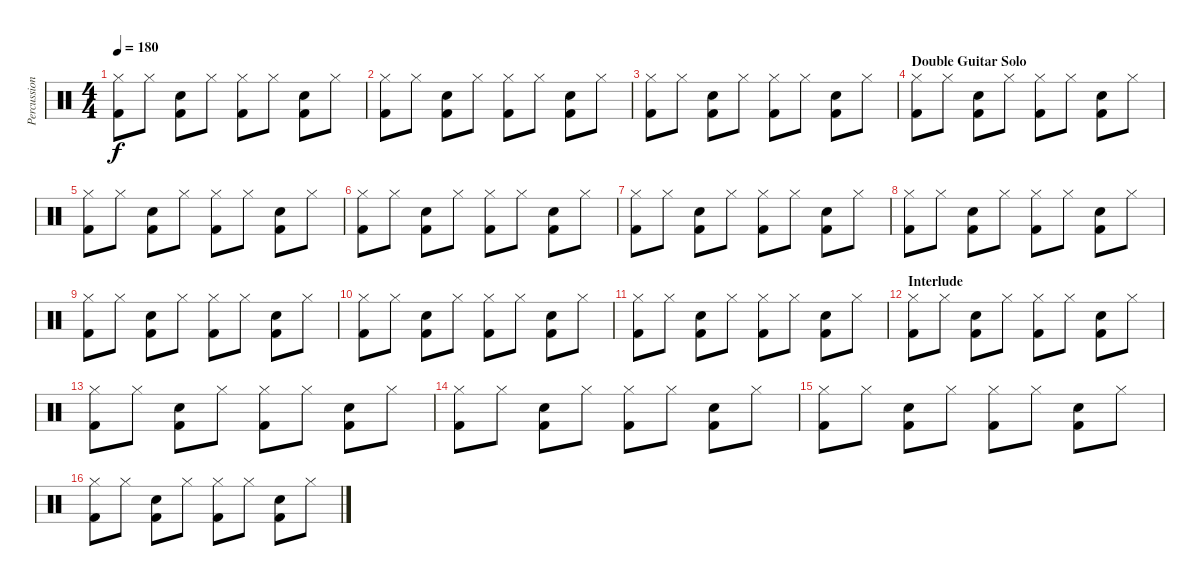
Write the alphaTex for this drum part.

\track ("Percussion" "Percussion") {instrument percussion}
\staff {score}
\articulation defaults
\ts (4 4)
\tempo 180
\clef neutral
\ks c
("Kick (hit) 2" "Hi-Hat (closed)").8{dy f} "Hi-Hat (closed)".8 ("Kick (hit) 2" "Snare (hit) 2").8 "Hi-Hat (closed)".8 ("Kick (hit) 2" "Hi-Hat (closed)").8 "Hi-Hat (closed)".8 ("Kick (hit) 2" "Electric Snare (hit)").8 "Hi-Hat (closed)".8 |
("Kick (hit) 2" "Hi-Hat (closed)").8 "Hi-Hat (closed)".8 ("Kick (hit) 2" "Snare (hit) 2").8 "Hi-Hat (closed)".8 ("Kick (hit) 2" "Hi-Hat (closed)").8 "Hi-Hat (closed)".8 ("Kick (hit) 2" "Electric Snare (hit)").8 "Hi-Hat (closed)".8 |
("Kick (hit) 2" "Hi-Hat (closed)").8 "Hi-Hat (closed)".8 ("Kick (hit) 2" "Snare (hit) 2").8 "Hi-Hat (closed)".8 ("Kick (hit) 2" "Hi-Hat (closed)").8 "Hi-Hat (closed)".8 ("Kick (hit) 2" "Electric Snare (hit)").8 "Hi-Hat (closed)".8 |
\section ("" "Double Guitar Solo")
("Kick (hit) 2" "Hi-Hat (closed)").8 "Hi-Hat (closed)".8 ("Kick (hit) 2" "Snare (hit) 2").8 "Hi-Hat (closed)".8 ("Kick (hit) 2" "Hi-Hat (closed)").8 "Hi-Hat (closed)".8 ("Kick (hit) 2" "Electric Snare (hit)").8 "Hi-Hat (closed)".8 |
("Kick (hit) 2" "Hi-Hat (closed)").8 "Hi-Hat (closed)".8 ("Kick (hit) 2" "Snare (hit) 2").8 "Hi-Hat (closed)".8 ("Kick (hit) 2" "Hi-Hat (closed)").8 "Hi-Hat (closed)".8 ("Kick (hit) 2" "Electric Snare (hit)").8 "Hi-Hat (closed)".8 |
("Kick (hit) 2" "Hi-Hat (closed)").8 "Hi-Hat (closed)".8 ("Kick (hit) 2" "Snare (hit) 2").8 "Hi-Hat (closed)".8 ("Kick (hit) 2" "Hi-Hat (closed)").8 "Hi-Hat (closed)".8 ("Kick (hit) 2" "Electric Snare (hit)").8 "Hi-Hat (closed)".8 |
("Kick (hit) 2" "Hi-Hat (closed)").8 "Hi-Hat (closed)".8 ("Kick (hit) 2" "Snare (hit) 2").8 "Hi-Hat (closed)".8 ("Kick (hit) 2" "Hi-Hat (closed)").8 "Hi-Hat (closed)".8 ("Kick (hit) 2" "Electric Snare (hit)").8 "Hi-Hat (closed)".8 |
("Kick (hit) 2" "Hi-Hat (closed)").8 "Hi-Hat (closed)".8 ("Kick (hit) 2" "Snare (hit) 2").8 "Hi-Hat (closed)".8 ("Kick (hit) 2" "Hi-Hat (closed)").8 "Hi-Hat (closed)".8 ("Kick (hit) 2" "Electric Snare (hit)").8 "Hi-Hat (closed)".8 |
("Kick (hit) 2" "Hi-Hat (closed)").8 "Hi-Hat (closed)".8 ("Kick (hit) 2" "Snare (hit) 2").8 "Hi-Hat (closed)".8 ("Kick (hit) 2" "Hi-Hat (closed)").8 "Hi-Hat (closed)".8 ("Kick (hit) 2" "Electric Snare (hit)").8 "Hi-Hat (closed)".8 |
("Kick (hit) 2" "Hi-Hat (closed)").8 "Hi-Hat (closed)".8 ("Kick (hit) 2" "Snare (hit) 2").8 "Hi-Hat (closed)".8 ("Kick (hit) 2" "Hi-Hat (closed)").8 "Hi-Hat (closed)".8 ("Kick (hit) 2" "Electric Snare (hit)").8 "Hi-Hat (closed)".8 |
("Kick (hit) 2" "Hi-Hat (closed)").8 "Hi-Hat (closed)".8 ("Kick (hit) 2" "Snare (hit) 2").8 "Hi-Hat (closed)".8 ("Kick (hit) 2" "Hi-Hat (closed)").8 "Hi-Hat (closed)".8 ("Kick (hit) 2" "Electric Snare (hit)").8 "Hi-Hat (closed)".8 |
\section ("" "Interlude")
("Kick (hit) 2" "Hi-Hat (closed)").8 "Hi-Hat (closed)".8 ("Kick (hit) 2" "Snare (hit) 2").8 "Hi-Hat (closed)".8 ("Kick (hit) 2" "Hi-Hat (closed)").8 "Hi-Hat (closed)".8 ("Kick (hit) 2" "Electric Snare (hit)").8 "Hi-Hat (closed)".8 |
("Kick (hit) 2" "Hi-Hat (closed)").8 "Hi-Hat (closed)".8 ("Kick (hit) 2" "Snare (hit) 2").8 "Hi-Hat (closed)".8 ("Kick (hit) 2" "Hi-Hat (closed)").8 "Hi-Hat (closed)".8 ("Kick (hit) 2" "Electric Snare (hit)").8 "Hi-Hat (closed)".8 |
("Kick (hit) 2" "Hi-Hat (closed)").8 "Hi-Hat (closed)".8 ("Kick (hit) 2" "Snare (hit) 2").8 "Hi-Hat (closed)".8 ("Kick (hit) 2" "Hi-Hat (closed)").8 "Hi-Hat (closed)".8 ("Kick (hit) 2" "Electric Snare (hit)").8 "Hi-Hat (closed)".8 |
("Kick (hit) 2" "Hi-Hat (closed)").8 "Hi-Hat (closed)".8 ("Kick (hit) 2" "Snare (hit) 2").8 "Hi-Hat (closed)".8 ("Kick (hit) 2" "Hi-Hat (closed)").8 "Hi-Hat (closed)".8 ("Kick (hit) 2" "Electric Snare (hit)").8 "Hi-Hat (closed)".8 |
("Kick (hit) 2" "Hi-Hat (closed)").8 "Hi-Hat (closed)".8 ("Kick (hit) 2" "Snare (hit) 2").8 "Hi-Hat (closed)".8 ("Kick (hit) 2" "Hi-Hat (closed)").8 "Hi-Hat (closed)".8 ("Kick (hit) 2" "Electric Snare (hit)").8 "Hi-Hat (closed)".8
